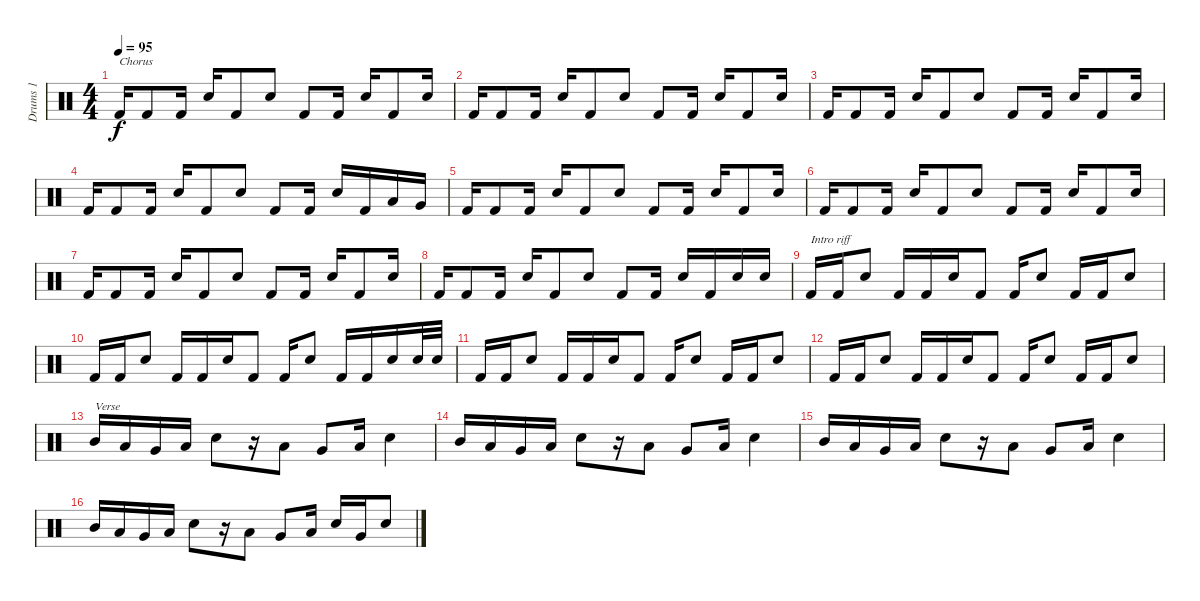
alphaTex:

\track ("Drums 1" "Drums 1") {instrument percussion}
\staff {score}
\articulation defaults
\ts (4 4)
\tempo 95
\clef neutral
\ks c "Kick (hit) 2".16{txt "Chorus" dy f} "Kick (hit) 2".8 "Kick (hit) 2".16 "Snare (hit) 2".16 "Kick (hit) 2".8 "Snare (hit) 2".8 "Kick (hit) 2".8 "Kick (hit) 2".16 "Snare (hit) 2".16 "Kick (hit) 2".8 "Snare (hit) 2".16
|
"Kick (hit) 2".16 "Kick (hit) 2".8 "Kick (hit) 2".16 "Snare (hit) 2".16 "Kick (hit) 2".8 "Snare (hit) 2".8 "Kick (hit) 2".8 "Kick (hit) 2".16 "Snare (hit) 2".16 "Kick (hit) 2".8 "Snare (hit) 2".16 |
"Kick (hit) 2".16 "Kick (hit) 2".8 "Kick (hit) 2".16 "Snare (hit) 2".16 "Kick (hit) 2".8 "Snare (hit) 2".8 "Kick (hit) 2".8 "Kick (hit) 2".16 "Snare (hit) 2".16 "Kick (hit) 2".8 "Snare (hit) 2".16 |
"Kick (hit) 2".16 "Kick (hit) 2".8 "Kick (hit) 2".16 "Snare (hit) 2".16 "Kick (hit) 2".8 "Snare (hit) 2".8 "Kick (hit) 2".8 "Kick (hit) 2".16 "Snare (hit) 2".16 "Kick (hit) 2".16 "Low Tom (hit)".16 "Very Low Tom (hit)".16 |
"Kick (hit) 2".16 "Kick (hit) 2".8 "Kick (hit) 2".16 "Snare (hit) 2".16 "Kick (hit) 2".8 "Snare (hit) 2".8 "Kick (hit) 2".8 "Kick (hit) 2".16 "Snare (hit) 2".16 "Kick (hit) 2".8 "Snare (hit) 2".16 |
"Kick (hit) 2".16 "Kick (hit) 2".8 "Kick (hit) 2".16 "Snare (hit) 2".16 "Kick (hit) 2".8 "Snare (hit) 2".8 "Kick (hit) 2".8 "Kick (hit) 2".16 "Snare (hit) 2".16 "Kick (hit) 2".8 "Snare (hit) 2".16 |
"Kick (hit) 2".16 "Kick (hit) 2".8 "Kick (hit) 2".16 "Snare (hit) 2".16 "Kick (hit) 2".8 "Snare (hit) 2".8 "Kick (hit) 2".8 "Kick (hit) 2".16 "Snare (hit) 2".16 "Kick (hit) 2".8 "Snare (hit) 2".16 |
"Kick (hit) 2".16 "Kick (hit) 2".8 "Kick (hit) 2".16 "Snare (hit) 2".16 "Kick (hit) 2".8 "Snare (hit) 2".8 "Kick (hit) 2".8 "Kick (hit) 2".16 "Snare (hit) 2".16 "Kick (hit) 2".16 "Snare (hit) 2".16 "Snare (hit) 2".16 |
"Kick (hit) 2".16{txt "Intro riff"} "Kick (hit) 2".16 "Snare (hit) 2".8 "Kick (hit) 2".16 "Kick (hit) 2".16 "Snare (hit) 2".16 "Kick (hit) 2".8 "Kick (hit) 2".16 "Snare (hit) 2".8 "Kick (hit) 2".16 "Kick (hit) 2".16 "Snare (hit) 2".8 |
"Kick (hit) 2".16 "Kick (hit) 2".16 "Snare (hit) 2".8 "Kick (hit) 2".16 "Kick (hit) 2".16 "Snare (hit) 2".16 "Kick (hit) 2".8 "Kick (hit) 2".16 "Snare (hit) 2".8 "Kick (hit) 2".16 "Kick (hit) 2".16 "Snare (hit) 2".16 "Snare (hit) 2".32 "Snare (hit) 2".32 |
"Kick (hit) 2".16 "Kick (hit) 2".16 "Snare (hit) 2".8 "Kick (hit) 2".16 "Kick (hit) 2".16 "Snare (hit) 2".16 "Kick (hit) 2".8 "Kick (hit) 2".16 "Snare (hit) 2".8 "Kick (hit) 2".16 "Kick (hit) 2".16 "Snare (hit) 2".8 |
"Kick (hit) 2".16 "Kick (hit) 2".16 "Snare (hit) 2".8 "Kick (hit) 2".16 "Kick (hit) 2".16 "Snare (hit) 2".16 "Kick (hit) 2".8 "Kick (hit) 2".16 "Snare (hit) 2".8 "Kick (hit) 2".16 "Kick (hit) 2".16 "Snare (hit) 2".8 |
"Mid Tom (hit)".16{txt "Verse"} "Low Tom (hit)".16 "Very Low Tom (hit)".16 "Low Floor Tom (hit)".16 "Snare (hit) 2".8 r.16 "Low Tom (hit)".8 "Very Low Tom (hit)".8 "Low Floor Tom (hit)".16 "Snare (hit) 2".4 |
"Mid Tom (hit)".16 "Low Tom (hit)".16 "Very Low Tom (hit)".16 "Low Floor Tom (hit)".16 "Snare (hit) 2".8 r.16 "Low Tom (hit)".8 "Very Low Tom (hit)".8 "Low Floor Tom (hit)".16 "Snare (hit) 2".4 |
"Mid Tom (hit)".16 "Low Tom (hit)".16 "Very Low Tom (hit)".16 "Low Floor Tom (hit)".16 "Snare (hit) 2".8 r.16 "Low Tom (hit)".8 "Very Low Tom (hit)".8 "Low Floor Tom (hit)".16 "Snare (hit) 2".4 |
"Mid Tom (hit)".16 "Low Tom (hit)".16 "Very Low Tom (hit)".16 "Low Floor Tom (hit)".16 "Snare (hit) 2".8 r.16 "Low Tom (hit)".8 "Very Low Tom (hit)".8 "Low Floor Tom (hit)".16 "Snare (hit) 2".16 "Very Low Tom (hit)".16 "Snare (hit) 2".8
